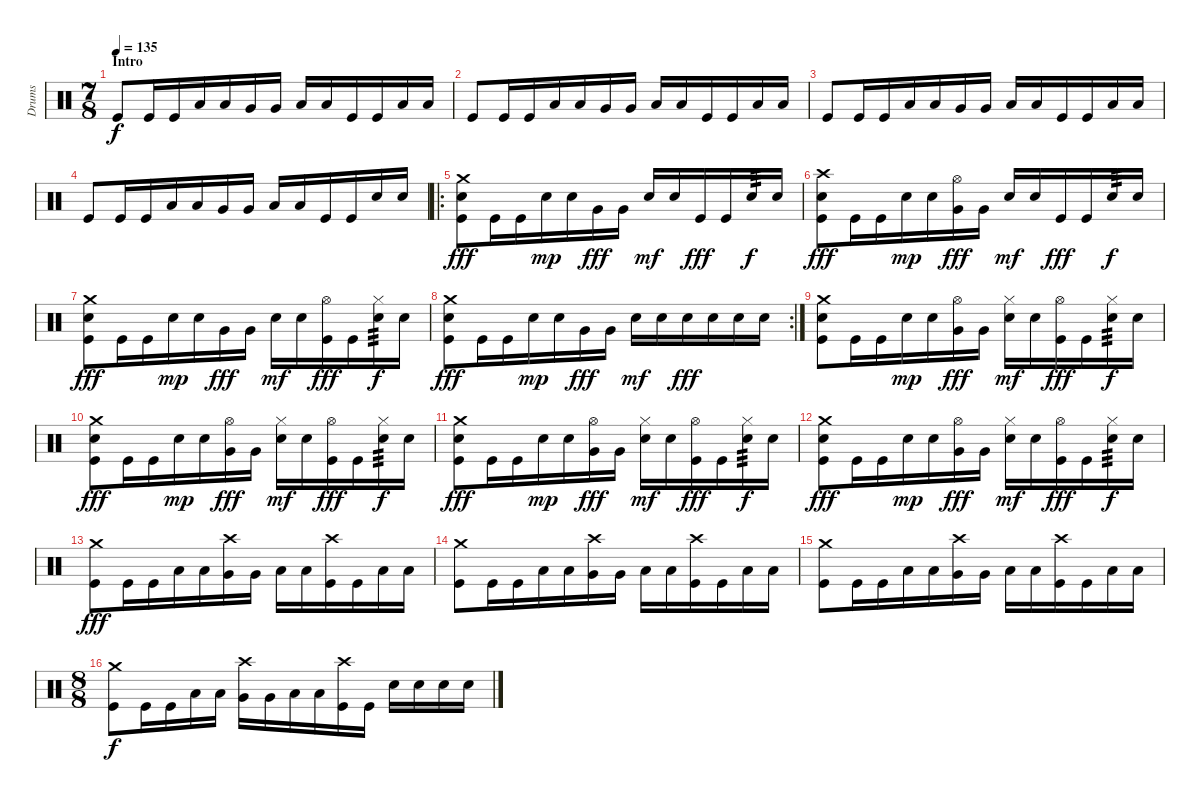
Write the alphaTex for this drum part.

\track ("Drums" "Drums") {instrument percussion}
\staff {score}
\articulation defaults
\ts (7 8)
\section ("" "Intro")
\tempo 135
\clef neutral
\ks c "Kick (hit)".8{dy f} "Kick (hit)".16 "Kick (hit)".16 "Low Tom (hit)".16 "Low Tom (hit)".16 "Very Low Tom (hit)".16 "Very Low Tom (hit)".16 "Low Floor Tom (hit)".16 "Low Floor Tom (hit)".16 "Kick (hit)".16 "Kick (hit)".16 "Low Tom (hit)".16 "Low Tom (hit)".16
|
"Kick (hit)".8 "Kick (hit)".16 "Kick (hit)".16 "Low Tom (hit)".16 "Low Tom (hit)".16 "Very Low Tom (hit)".16 "Very Low Tom (hit)".16 "Low Floor Tom (hit)".16 "Low Floor Tom (hit)".16 "Kick (hit)".16 "Kick (hit)".16 "Low Tom (hit)".16 "Low Tom (hit)".16 |
"Kick (hit)".8 "Kick (hit)".16 "Kick (hit)".16 "Low Tom (hit)".16 "Low Tom (hit)".16 "Very Low Tom (hit)".16 "Very Low Tom (hit)".16 "Low Floor Tom (hit)".16 "Low Floor Tom (hit)".16 "Kick (hit)".16 "Kick (hit)".16 "Low Tom (hit)".16 "Low Tom (hit)".16 |
"Kick (hit)".8 "Kick (hit)".16 "Kick (hit)".16 "Low Tom (hit)".16 "Low Tom (hit)".16 "Very Low Tom (hit)".16 "Very Low Tom (hit)".16 "Low Floor Tom (hit)".16 "Low Floor Tom (hit)".16 "Kick (hit)".16 "Kick (hit)".16 "Electric Snare (hit)".16 "Electric Snare (hit)".16 |
\ro
("Crash medium (hit)" "Electric Snare (hit)" "Kick (hit)").8{dy fff} "Kick (hit)".16 "Kick (hit)".16 "Electric Snare (hit)".16{dy mp} "Electric Snare (hit)".16 "Very Low Tom (hit)".16{dy fff} "Very Low Tom (hit)".16 "Electric Snare (hit)".16{dy mf} "Electric Snare (hit)".16 "Kick (hit)".16{dy fff} "Kick (hit)".16 "Electric Snare (hit)".16{tp 3 dy f} "Electric Snare (hit)".16 |
("Crash high (hit)" "Electric Snare (hit)" "Kick (hit)").8{dy fff} "Kick (hit)".16 "Kick (hit)".16 "Electric Snare (hit)".16{dy mp} "Electric Snare (hit)".16 ("Hi-Hat (open)" "Very Low Tom (hit)").16{dy fff} "Very Low Tom (hit)".16 "Electric Snare (hit)".16{dy mf} "Electric Snare (hit)".16 "Kick (hit)".16{dy fff} "Kick (hit)".16 "Electric Snare (hit)".16{tp 3 dy f} "Electric Snare (hit)".16 |
("Crash medium (hit)" "Electric Snare (hit)" "Kick (hit)").8{dy fff} "Kick (hit)".16 "Kick (hit)".16 "Electric Snare (hit)".16{dy mp} "Electric Snare (hit)".16 "Very Low Tom (hit)".16{dy fff} "Very Low Tom (hit)".16 "Electric Snare (hit)".16{dy mf} "Electric Snare (hit)".16 ("Hi-Hat (open)" "Kick (hit)").16{dy fff} "Kick (hit)".16 ("Hi-Hat (closed)" "Electric Snare (hit)").16{tp 3 dy f} "Electric Snare (hit)".16 |
\rc 2
("Crash medium (hit)" "Electric Snare (hit)" "Kick (hit)").8{dy fff} "Kick (hit)".16 "Kick (hit)".16 "Electric Snare (hit)".16{dy mp} "Electric Snare (hit)".16 "Very Low Tom (hit)".16{dy fff} "Very Low Tom (hit)".16 "Electric Snare (hit)".16{dy mf} "Electric Snare (hit)".16 "Electric Snare (hit)".16{dy fff} "Electric Snare (hit)".16 "Electric Snare (hit)".16 "Electric Snare (hit)".16 |
("Crash medium (hit)" "Electric Snare (hit)" "Kick (hit)").8 "Kick (hit)".16 "Kick (hit)".16 "Electric Snare (hit)".16{dy mp} "Electric Snare (hit)".16 ("Hi-Hat (open)" "Very Low Tom (hit)").16{dy fff} "Very Low Tom (hit)".16 ("Hi-Hat (closed)" "Electric Snare (hit)").16{dy mf} "Electric Snare (hit)".16 ("Hi-Hat (open)" "Kick (hit)").16{dy fff} "Kick (hit)".16 ("Hi-Hat (closed)" "Electric Snare (hit)").16{tp 3 dy f} "Electric Snare (hit)".16 |
("Crash medium (hit)" "Electric Snare (hit)" "Kick (hit)").8{dy fff} "Kick (hit)".16 "Kick (hit)".16 "Electric Snare (hit)".16{dy mp} "Electric Snare (hit)".16 ("Hi-Hat (open)" "Very Low Tom (hit)").16{dy fff} "Very Low Tom (hit)".16 ("Hi-Hat (closed)" "Electric Snare (hit)").16{dy mf} "Electric Snare (hit)".16 ("Hi-Hat (open)" "Kick (hit)").16{dy fff} "Kick (hit)".16 ("Hi-Hat (closed)" "Electric Snare (hit)").16{tp 3 dy f} "Electric Snare (hit)".16 |
("Crash medium (hit)" "Electric Snare (hit)" "Kick (hit)").8{dy fff} "Kick (hit)".16 "Kick (hit)".16 "Electric Snare (hit)".16{dy mp} "Electric Snare (hit)".16 ("Hi-Hat (open)" "Very Low Tom (hit)").16{dy fff} "Very Low Tom (hit)".16 ("Hi-Hat (closed)" "Electric Snare (hit)").16{dy mf} "Electric Snare (hit)".16 ("Hi-Hat (open)" "Kick (hit)").16{dy fff} "Kick (hit)".16 ("Hi-Hat (closed)" "Electric Snare (hit)").16{tp 3 dy f} "Electric Snare (hit)".16 |
("Crash medium (hit)" "Electric Snare (hit)" "Kick (hit)").8{dy fff} "Kick (hit)".16 "Kick (hit)".16 "Electric Snare (hit)".16{dy mp} "Electric Snare (hit)".16 ("Hi-Hat (open)" "Very Low Tom (hit)").16{dy fff} "Very Low Tom (hit)".16 ("Hi-Hat (closed)" "Electric Snare (hit)").16{dy mf} "Electric Snare (hit)".16 ("Hi-Hat (open)" "Kick (hit)").16{dy fff} "Kick (hit)".16 ("Hi-Hat (closed)" "Electric Snare (hit)").16{tp 3 dy f} "Electric Snare (hit)".16 |
("Crash medium (hit)" "Kick (hit)").8{dy fff} "Kick (hit)".16 "Kick (hit)".16 "Low Tom (hit)".16 "Low Tom (hit)".16 ("Crash high (hit)" "Very Low Tom (hit)").16 "Very Low Tom (hit)".16 "Low Floor Tom (hit)".16 "Low Floor Tom (hit)".16 ("Crash high (hit)" "Kick (hit)").16 "Kick (hit)".16 "Low Tom (hit)".16 "Low Tom (hit)".16 |
("Crash medium (hit)" "Kick (hit)").8 "Kick (hit)".16 "Kick (hit)".16 "Low Tom (hit)".16 "Low Tom (hit)".16 ("Crash high (hit)" "Very Low Tom (hit)").16 "Very Low Tom (hit)".16 "Low Floor Tom (hit)".16 "Low Floor Tom (hit)".16 ("Crash high (hit)" "Kick (hit)").16 "Kick (hit)".16 "Low Tom (hit)".16 "Low Tom (hit)".16 |
("Crash medium (hit)" "Kick (hit)").8 "Kick (hit)".16 "Kick (hit)".16 "Low Tom (hit)".16 "Low Tom (hit)".16 ("Crash high (hit)" "Very Low Tom (hit)").16 "Very Low Tom (hit)".16 "Low Floor Tom (hit)".16 "Low Floor Tom (hit)".16 ("Crash high (hit)" "Kick (hit)").16 "Kick (hit)".16 "Low Tom (hit)".16 "Low Tom (hit)".16 |
\ts (8 8)
("Crash medium (hit)" "Kick (hit)").8{dy f} "Kick (hit)".16 "Kick (hit)".16 "Low Tom (hit)".16 "Low Tom (hit)".16 ("Crash high (hit)" "Very Low Tom (hit)").16 "Very Low Tom (hit)".16 "Low Floor Tom (hit)".16 "Low Floor Tom (hit)".16 ("Crash high (hit)" "Kick (hit)").16 "Kick (hit)".16 "Electric Snare (hit)".16 "Electric Snare (hit)".16 "Electric Snare (hit)".16 "Electric Snare (hit)".16
